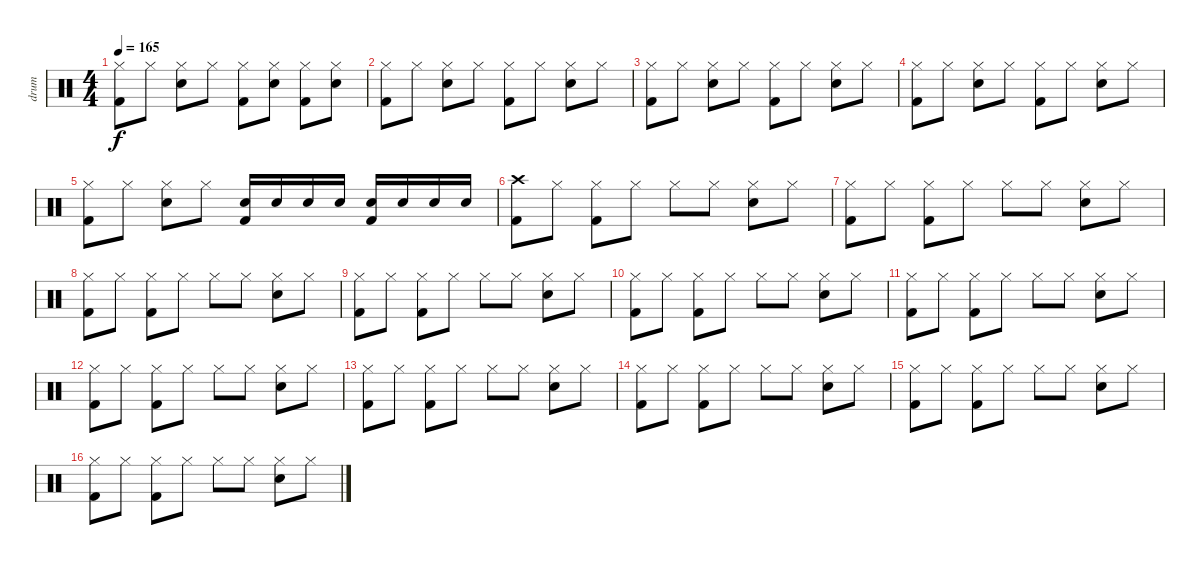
\track ("drum" "drum") {instrument percussion}
\staff {score}
\articulation defaults
\ts (4 4)
\tempo 165
\clef neutral
\ks c
("Hi-Hat (closed)" "Kick (hit) 2").8{dy f} "Hi-Hat (closed)".8 ("Hi-Hat (closed)" "Snare (hit) 2").8 "Hi-Hat (closed)".8 ("Hi-Hat (closed)" "Kick (hit) 2").8 ("Hi-Hat (closed)" "Snare (hit) 2").8 ("Hi-Hat (closed)" "Kick (hit) 2").8 ("Hi-Hat (closed)" "Snare (hit) 2").8 |
("Hi-Hat (closed)" "Kick (hit) 2").8 "Hi-Hat (closed)".8 ("Hi-Hat (closed)" "Snare (hit) 2").8 "Hi-Hat (closed)".8 ("Hi-Hat (closed)" "Kick (hit) 2").8 "Hi-Hat (closed)".8 ("Hi-Hat (closed)" "Snare (hit) 2").8 "Hi-Hat (closed)".8 |
("Hi-Hat (closed)" "Kick (hit) 2").8 "Hi-Hat (closed)".8 ("Hi-Hat (closed)" "Snare (hit) 2").8 "Hi-Hat (closed)".8 ("Hi-Hat (closed)" "Kick (hit) 2").8 "Hi-Hat (closed)".8 ("Hi-Hat (closed)" "Snare (hit) 2").8 "Hi-Hat (closed)".8 |
("Hi-Hat (closed)" "Kick (hit) 2").8 "Hi-Hat (closed)".8 ("Hi-Hat (closed)" "Snare (hit) 2").8 "Hi-Hat (closed)".8 ("Hi-Hat (closed)" "Kick (hit) 2").8 "Hi-Hat (closed)".8 ("Hi-Hat (closed)" "Snare (hit) 2").8 "Hi-Hat (closed)".8 |
("Hi-Hat (closed)" "Kick (hit) 2").8 "Hi-Hat (closed)".8 ("Hi-Hat (closed)" "Snare (hit) 2").8 "Hi-Hat (closed)".8 ("Snare (hit) 2" "Kick (hit) 2").16 "Snare (hit) 2".16 "Snare (hit) 2".16 "Snare (hit) 2".16 ("Snare (hit) 2" "Kick (hit) 2").16 "Snare (hit) 2".16 "Snare (hit) 2".16 "Snare (hit) 2".16 |
("Crash high (hit)" "Kick (hit) 2").8 "Hi-Hat (closed)".8 ("Hi-Hat (closed)" "Kick (hit) 2").8 "Hi-Hat (closed)".8 "Hi-Hat (closed)".8 "Hi-Hat (closed)".8 ("Hi-Hat (closed)" "Snare (hit) 2").8 "Hi-Hat (closed)".8 |
("Hi-Hat (closed)" "Kick (hit) 2").8 "Hi-Hat (closed)".8 ("Hi-Hat (closed)" "Kick (hit) 2").8 "Hi-Hat (closed)".8 "Hi-Hat (closed)".8 "Hi-Hat (closed)".8 ("Hi-Hat (closed)" "Snare (hit) 2").8 "Hi-Hat (closed)".8 |
("Hi-Hat (closed)" "Kick (hit) 2").8 "Hi-Hat (closed)".8 ("Hi-Hat (closed)" "Kick (hit) 2").8 "Hi-Hat (closed)".8 "Hi-Hat (closed)".8 "Hi-Hat (closed)".8 ("Hi-Hat (closed)" "Snare (hit) 2").8 "Hi-Hat (closed)".8 |
("Hi-Hat (closed)" "Kick (hit) 2").8 "Hi-Hat (closed)".8 ("Hi-Hat (closed)" "Kick (hit) 2").8 "Hi-Hat (closed)".8 "Hi-Hat (closed)".8 "Hi-Hat (closed)".8 ("Hi-Hat (closed)" "Snare (hit) 2").8 "Hi-Hat (closed)".8 |
("Hi-Hat (closed)" "Kick (hit) 2").8 "Hi-Hat (closed)".8 ("Hi-Hat (closed)" "Kick (hit) 2").8 "Hi-Hat (closed)".8 "Hi-Hat (closed)".8 "Hi-Hat (closed)".8 ("Hi-Hat (closed)" "Snare (hit) 2").8 "Hi-Hat (closed)".8 |
("Hi-Hat (closed)" "Kick (hit) 2").8 "Hi-Hat (closed)".8 ("Hi-Hat (closed)" "Kick (hit) 2").8 "Hi-Hat (closed)".8 "Hi-Hat (closed)".8 "Hi-Hat (closed)".8 ("Hi-Hat (closed)" "Snare (hit) 2").8 "Hi-Hat (closed)".8 |
("Hi-Hat (closed)" "Kick (hit) 2").8 "Hi-Hat (closed)".8 ("Hi-Hat (closed)" "Kick (hit) 2").8 "Hi-Hat (closed)".8 "Hi-Hat (closed)".8 "Hi-Hat (closed)".8 ("Hi-Hat (closed)" "Snare (hit) 2").8 "Hi-Hat (closed)".8 |
("Hi-Hat (closed)" "Kick (hit) 2").8 "Hi-Hat (closed)".8 ("Hi-Hat (closed)" "Kick (hit) 2").8 "Hi-Hat (closed)".8 "Hi-Hat (closed)".8 "Hi-Hat (closed)".8 ("Hi-Hat (closed)" "Snare (hit) 2").8 "Hi-Hat (closed)".8 |
("Hi-Hat (closed)" "Kick (hit) 2").8 "Hi-Hat (closed)".8 ("Hi-Hat (closed)" "Kick (hit) 2").8 "Hi-Hat (closed)".8 "Hi-Hat (closed)".8 "Hi-Hat (closed)".8 ("Hi-Hat (closed)" "Snare (hit) 2").8 "Hi-Hat (closed)".8 |
("Hi-Hat (closed)" "Kick (hit) 2").8 "Hi-Hat (closed)".8 ("Hi-Hat (closed)" "Kick (hit) 2").8 "Hi-Hat (closed)".8 "Hi-Hat (closed)".8 "Hi-Hat (closed)".8 ("Hi-Hat (closed)" "Snare (hit) 2").8 "Hi-Hat (closed)".8 |
("Hi-Hat (closed)" "Kick (hit) 2").8 "Hi-Hat (closed)".8 ("Hi-Hat (closed)" "Kick (hit) 2").8 "Hi-Hat (closed)".8 "Hi-Hat (closed)".8 "Hi-Hat (closed)".8 ("Hi-Hat (closed)" "Snare (hit) 2").8 "Hi-Hat (closed)".8
